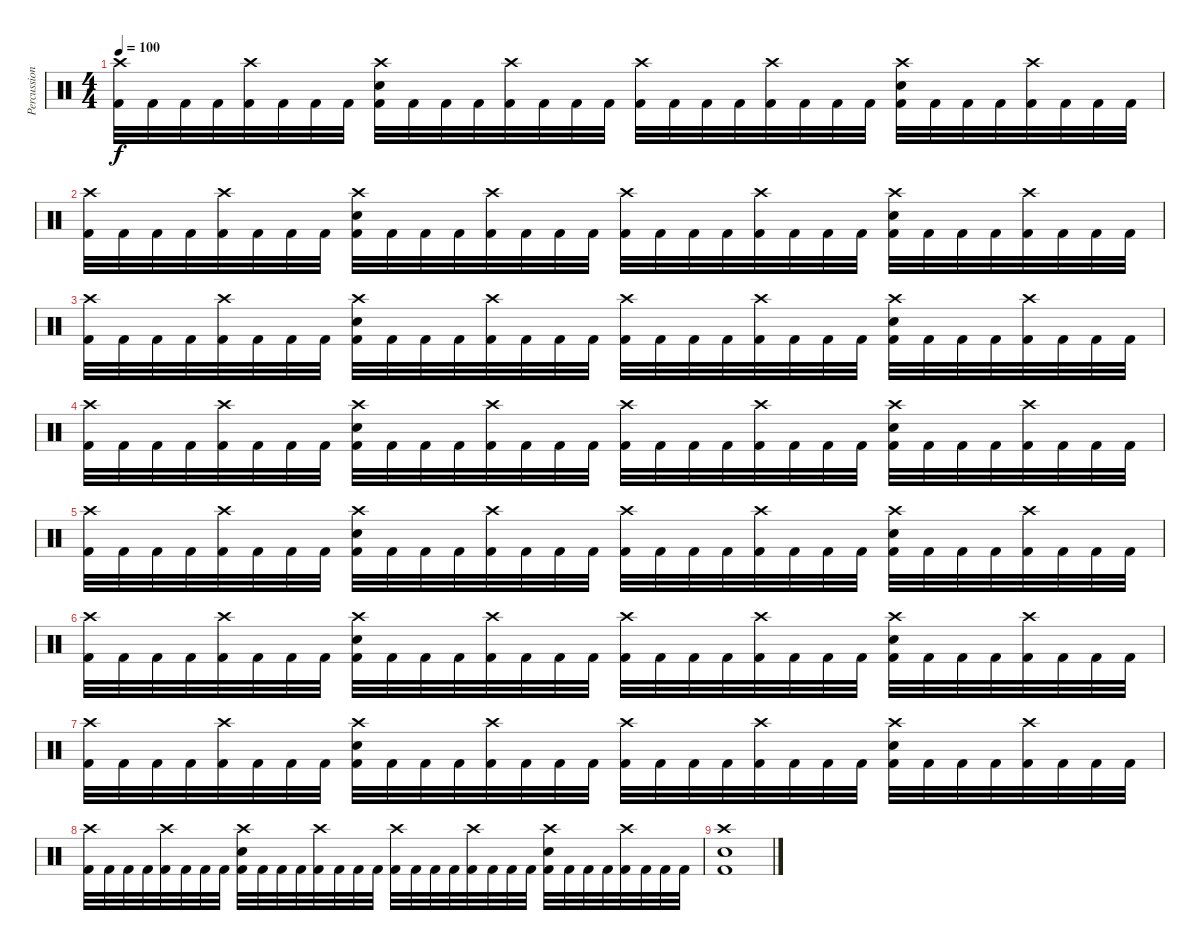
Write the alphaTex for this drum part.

\track ("Percussion" "Percussion") {instrument percussion}
\staff {score}
\articulation defaults
\ts (4 4)
\tempo 100
\clef neutral
\ks c
("Crash high (hit)" "Kick (hit) 2").32{dy f} "Kick (hit) 2".32 "Kick (hit) 2".32 "Kick (hit) 2".32 ("Crash high (hit)" "Kick (hit) 2").32 "Kick (hit) 2".32 "Kick (hit) 2".32 "Kick (hit) 2".32 ("Crash high (hit)" "Electric Snare (hit)" "Kick (hit) 2").32 "Kick (hit) 2".32 "Kick (hit) 2".32 "Kick (hit) 2".32 ("Crash high (hit)" "Kick (hit) 2").32 "Kick (hit) 2".32 "Kick (hit) 2".32 "Kick (hit) 2".32 ("Crash high (hit)" "Kick (hit) 2").32 "Kick (hit) 2".32 "Kick (hit) 2".32 "Kick (hit) 2".32 ("Crash high (hit)" "Kick (hit) 2").32 "Kick (hit) 2".32 "Kick (hit) 2".32 "Kick (hit) 2".32 ("Crash high (hit)" "Electric Snare (hit)" "Kick (hit) 2").32 "Kick (hit) 2".32 "Kick (hit) 2".32 "Kick (hit) 2".32 ("Crash high (hit)" "Kick (hit) 2").32 "Kick (hit) 2".32 "Kick (hit) 2".32 "Kick (hit) 2".32 |
("Crash high (hit)" "Kick (hit) 2").32 "Kick (hit) 2".32 "Kick (hit) 2".32 "Kick (hit) 2".32 ("Crash high (hit)" "Kick (hit) 2").32 "Kick (hit) 2".32 "Kick (hit) 2".32 "Kick (hit) 2".32 ("Crash high (hit)" "Electric Snare (hit)" "Kick (hit) 2").32 "Kick (hit) 2".32 "Kick (hit) 2".32 "Kick (hit) 2".32 ("Crash high (hit)" "Kick (hit) 2").32 "Kick (hit) 2".32 "Kick (hit) 2".32 "Kick (hit) 2".32 ("Crash high (hit)" "Kick (hit) 2").32 "Kick (hit) 2".32 "Kick (hit) 2".32 "Kick (hit) 2".32 ("Crash high (hit)" "Kick (hit) 2").32 "Kick (hit) 2".32 "Kick (hit) 2".32 "Kick (hit) 2".32 ("Crash high (hit)" "Electric Snare (hit)" "Kick (hit) 2").32 "Kick (hit) 2".32 "Kick (hit) 2".32 "Kick (hit) 2".32 ("Crash high (hit)" "Kick (hit) 2").32 "Kick (hit) 2".32 "Kick (hit) 2".32 "Kick (hit) 2".32 |
("Crash high (hit)" "Kick (hit) 2").32 "Kick (hit) 2".32 "Kick (hit) 2".32 "Kick (hit) 2".32 ("Crash high (hit)" "Kick (hit) 2").32 "Kick (hit) 2".32 "Kick (hit) 2".32 "Kick (hit) 2".32 ("Crash high (hit)" "Electric Snare (hit)" "Kick (hit) 2").32 "Kick (hit) 2".32 "Kick (hit) 2".32 "Kick (hit) 2".32 ("Crash high (hit)" "Kick (hit) 2").32 "Kick (hit) 2".32 "Kick (hit) 2".32 "Kick (hit) 2".32 ("Crash high (hit)" "Kick (hit) 2").32 "Kick (hit) 2".32 "Kick (hit) 2".32 "Kick (hit) 2".32 ("Crash high (hit)" "Kick (hit) 2").32 "Kick (hit) 2".32 "Kick (hit) 2".32 "Kick (hit) 2".32 ("Crash high (hit)" "Electric Snare (hit)" "Kick (hit) 2").32 "Kick (hit) 2".32 "Kick (hit) 2".32 "Kick (hit) 2".32 ("Crash high (hit)" "Kick (hit) 2").32 "Kick (hit) 2".32 "Kick (hit) 2".32 "Kick (hit) 2".32 |
("Crash high (hit)" "Kick (hit) 2").32 "Kick (hit) 2".32 "Kick (hit) 2".32 "Kick (hit) 2".32 ("Crash high (hit)" "Kick (hit) 2").32 "Kick (hit) 2".32 "Kick (hit) 2".32 "Kick (hit) 2".32 ("Crash high (hit)" "Electric Snare (hit)" "Kick (hit) 2").32 "Kick (hit) 2".32 "Kick (hit) 2".32 "Kick (hit) 2".32 ("Crash high (hit)" "Kick (hit) 2").32 "Kick (hit) 2".32 "Kick (hit) 2".32 "Kick (hit) 2".32 ("Crash high (hit)" "Kick (hit) 2").32 "Kick (hit) 2".32 "Kick (hit) 2".32 "Kick (hit) 2".32 ("Crash high (hit)" "Kick (hit) 2").32 "Kick (hit) 2".32 "Kick (hit) 2".32 "Kick (hit) 2".32 ("Crash high (hit)" "Electric Snare (hit)" "Kick (hit) 2").32 "Kick (hit) 2".32 "Kick (hit) 2".32 "Kick (hit) 2".32 ("Crash high (hit)" "Kick (hit) 2").32 "Kick (hit) 2".32 "Kick (hit) 2".32 "Kick (hit) 2".32 |
("Crash high (hit)" "Kick (hit) 2").32 "Kick (hit) 2".32 "Kick (hit) 2".32 "Kick (hit) 2".32 ("Crash high (hit)" "Kick (hit) 2").32 "Kick (hit) 2".32 "Kick (hit) 2".32 "Kick (hit) 2".32 ("Crash high (hit)" "Electric Snare (hit)" "Kick (hit) 2").32 "Kick (hit) 2".32 "Kick (hit) 2".32 "Kick (hit) 2".32 ("Crash high (hit)" "Kick (hit) 2").32 "Kick (hit) 2".32 "Kick (hit) 2".32 "Kick (hit) 2".32 ("Crash high (hit)" "Kick (hit) 2").32 "Kick (hit) 2".32 "Kick (hit) 2".32 "Kick (hit) 2".32 ("Crash high (hit)" "Kick (hit) 2").32 "Kick (hit) 2".32 "Kick (hit) 2".32 "Kick (hit) 2".32 ("Crash high (hit)" "Electric Snare (hit)" "Kick (hit) 2").32 "Kick (hit) 2".32 "Kick (hit) 2".32 "Kick (hit) 2".32 ("Crash high (hit)" "Kick (hit) 2").32 "Kick (hit) 2".32 "Kick (hit) 2".32 "Kick (hit) 2".32 |
("Crash high (hit)" "Kick (hit) 2").32 "Kick (hit) 2".32 "Kick (hit) 2".32 "Kick (hit) 2".32 ("Crash high (hit)" "Kick (hit) 2").32 "Kick (hit) 2".32 "Kick (hit) 2".32 "Kick (hit) 2".32 ("Crash high (hit)" "Electric Snare (hit)" "Kick (hit) 2").32 "Kick (hit) 2".32 "Kick (hit) 2".32 "Kick (hit) 2".32 ("Crash high (hit)" "Kick (hit) 2").32 "Kick (hit) 2".32 "Kick (hit) 2".32 "Kick (hit) 2".32 ("Crash high (hit)" "Kick (hit) 2").32 "Kick (hit) 2".32 "Kick (hit) 2".32 "Kick (hit) 2".32 ("Crash high (hit)" "Kick (hit) 2").32 "Kick (hit) 2".32 "Kick (hit) 2".32 "Kick (hit) 2".32 ("Crash high (hit)" "Electric Snare (hit)" "Kick (hit) 2").32 "Kick (hit) 2".32 "Kick (hit) 2".32 "Kick (hit) 2".32 ("Crash high (hit)" "Kick (hit) 2").32 "Kick (hit) 2".32 "Kick (hit) 2".32 "Kick (hit) 2".32 |
("Crash high (hit)" "Kick (hit) 2").32 "Kick (hit) 2".32 "Kick (hit) 2".32 "Kick (hit) 2".32 ("Crash high (hit)" "Kick (hit) 2").32 "Kick (hit) 2".32 "Kick (hit) 2".32 "Kick (hit) 2".32 ("Crash high (hit)" "Electric Snare (hit)" "Kick (hit) 2").32 "Kick (hit) 2".32 "Kick (hit) 2".32 "Kick (hit) 2".32 ("Crash high (hit)" "Kick (hit) 2").32 "Kick (hit) 2".32 "Kick (hit) 2".32 "Kick (hit) 2".32 ("Crash high (hit)" "Kick (hit) 2").32 "Kick (hit) 2".32 "Kick (hit) 2".32 "Kick (hit) 2".32 ("Crash high (hit)" "Kick (hit) 2").32 "Kick (hit) 2".32 "Kick (hit) 2".32 "Kick (hit) 2".32 ("Crash high (hit)" "Electric Snare (hit)" "Kick (hit) 2").32 "Kick (hit) 2".32 "Kick (hit) 2".32 "Kick (hit) 2".32 ("Crash high (hit)" "Kick (hit) 2").32 "Kick (hit) 2".32 "Kick (hit) 2".32 "Kick (hit) 2".32 |
("Crash high (hit)" "Kick (hit) 2").32 "Kick (hit) 2".32 "Kick (hit) 2".32 "Kick (hit) 2".32 ("Crash high (hit)" "Kick (hit) 2").32 "Kick (hit) 2".32 "Kick (hit) 2".32 "Kick (hit) 2".32 ("Crash high (hit)" "Electric Snare (hit)" "Kick (hit) 2").32 "Kick (hit) 2".32 "Kick (hit) 2".32 "Kick (hit) 2".32 ("Crash high (hit)" "Kick (hit) 2").32 "Kick (hit) 2".32 "Kick (hit) 2".32 "Kick (hit) 2".32 ("Crash high (hit)" "Kick (hit) 2").32 "Kick (hit) 2".32 "Kick (hit) 2".32 "Kick (hit) 2".32 ("Crash high (hit)" "Kick (hit) 2").32 "Kick (hit) 2".32 "Kick (hit) 2".32 "Kick (hit) 2".32 ("Crash high (hit)" "Electric Snare (hit)" "Kick (hit) 2").32 "Kick (hit) 2".32 "Kick (hit) 2".32 "Kick (hit) 2".32 ("Crash high (hit)" "Kick (hit) 2").32 "Kick (hit) 2".32 "Kick (hit) 2".32 "Kick (hit) 2".32 |
("Crash high (hit)" "Electric Snare (hit)" "Kick (hit) 2").1
